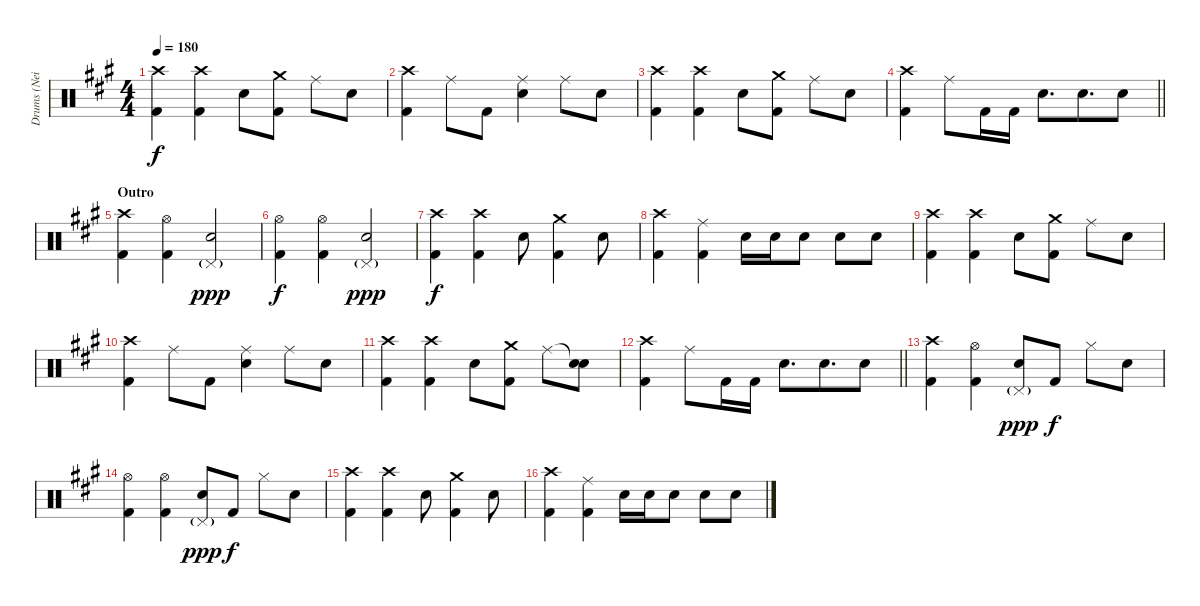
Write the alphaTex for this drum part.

\track ("Drums (Neil Sanderson)" "Drums (Nei") {instrument percussion}
\staff {score}
\articulation defaults
\ts (4 4)
\tempo 180
\clef neutral
\ks f#minor
("Crash high (hit)" "Kick (hit) 2").4{dy f} ("Crash high (hit)" "Kick (hit) 2").4 "Electric Snare (hit)".8 ("Crash medium (hit)" "Kick (hit) 2").8 "Ride (middle)".8 "Electric Snare (hit)".8 |
("Crash high (hit)" "Kick (hit) 2").4 "Ride (middle)".8 "Kick (hit) 2".8 ("Ride (middle)" "Electric Snare (hit)").4 "Ride (middle)".8 "Electric Snare (hit)".8 |
("Crash high (hit)" "Kick (hit) 2").4 ("Crash high (hit)" "Kick (hit) 2").4 "Electric Snare (hit)".8 ("Crash medium (hit)" "Kick (hit) 2").8 "Ride (middle)".8 "Electric Snare (hit)".8 |
\barLineRight lightlight
("Crash high (hit)" "Kick (hit) 2").4 "Ride (middle)".8 "Kick (hit) 2".16 "Kick (hit) 2".16 "Electric Snare (hit)".8{d} "Electric Snare (hit)".8{d beam merge} "Electric Snare (hit)".8 |
\section ("" "Outro")
("Crash high (hit)" "Kick (hit) 2").4 ("Hi-Hat (open)" "Kick (hit) 2").4 ("Pedal Hi-Hat (hit)"{g} "Electric Snare (hit)").2{dy ppp} |
("Hi-Hat (open)" "Kick (hit) 2").4{dy f} ("Hi-Hat (open)" "Kick (hit) 2").4 ("Pedal Hi-Hat (hit)"{g} "Electric Snare (hit)").2{dy ppp} |
("Crash high (hit)" "Kick (hit) 2").4{dy f} ("Crash high (hit)" "Kick (hit) 2").4 "Electric Snare (hit)".8 ("Crash medium (hit)" "Kick (hit) 2").4 "Electric Snare (hit)".8 |
("Crash high (hit)" "Kick (hit) 2").4 ("Ride (middle)" "Kick (hit) 2").4 "Electric Snare (hit)".16 "Electric Snare (hit)".16 "Electric Snare (hit)".8 "Electric Snare (hit)".8 "Electric Snare (hit)".8 |
("Crash high (hit)" "Kick (hit) 2").4 ("Crash high (hit)" "Kick (hit) 2").4 "Electric Snare (hit)".8 ("Crash medium (hit)" "Kick (hit) 2").8 "Ride (middle)".8 "Electric Snare (hit)".8 |
("Crash high (hit)" "Kick (hit) 2").4 "Ride (middle)".8 "Kick (hit) 2".8 ("Ride (middle)" "Electric Snare (hit)").4 "Ride (middle)".8 "Electric Snare (hit)".8 |
("Crash high (hit)" "Kick (hit) 2").4 ("Crash high (hit)" "Kick (hit) 2").4 "Electric Snare (hit)".8 ("Crash medium (hit)" "Kick (hit) 2").8 "Ride (middle)".8 ("Snare (hit)"{t} "Electric Snare (hit)").8 |
\barLineRight lightlight
("Crash high (hit)" "Kick (hit) 2").4 "Ride (middle)".8 "Kick (hit) 2".16 "Kick (hit) 2".16 "Electric Snare (hit)".8{d} "Electric Snare (hit)".8{d beam merge} "Electric Snare (hit)".8 |
("Crash high (hit)" "Kick (hit) 2").4 ("Hi-Hat (open)" "Kick (hit) 2").4 ("Pedal Hi-Hat (hit)"{g} "Electric Snare (hit)").8{dy ppp} "Kick (hit) 2".8{dy f} "Hi-Hat (closed)".8 "Electric Snare (hit)".8 |
("Hi-Hat (open)" "Kick (hit) 2").4 ("Hi-Hat (open)" "Kick (hit) 2").4 ("Pedal Hi-Hat (hit)"{g} "Electric Snare (hit)").8{dy ppp} "Kick (hit) 2".8{dy f} "Hi-Hat (closed)".8 "Electric Snare (hit)".8 |
("Crash high (hit)" "Kick (hit) 2").4 ("Crash high (hit)" "Kick (hit) 2").4 "Electric Snare (hit)".8 ("Crash medium (hit)" "Kick (hit) 2").4 "Electric Snare (hit)".8 |
("Crash high (hit)" "Kick (hit) 2").4 ("Ride (middle)" "Kick (hit) 2").4 "Electric Snare (hit)".16 "Electric Snare (hit)".16 "Electric Snare (hit)".8 "Electric Snare (hit)".8 "Electric Snare (hit)".8
